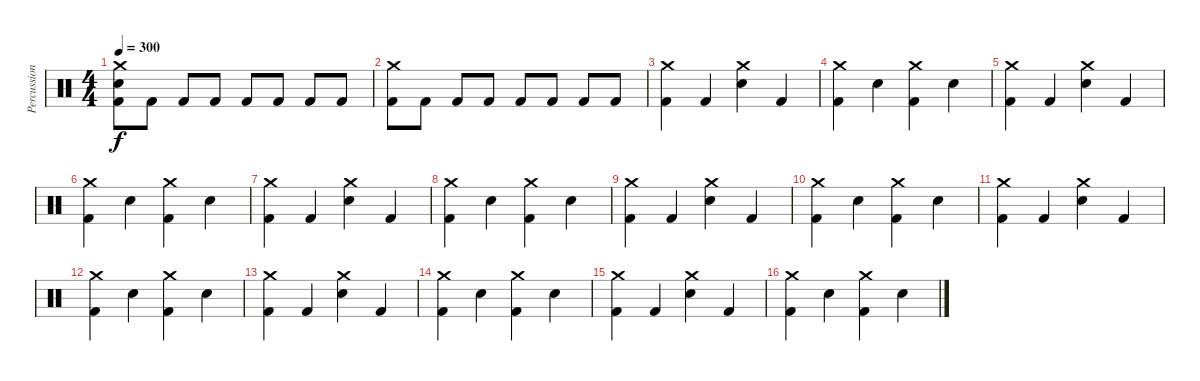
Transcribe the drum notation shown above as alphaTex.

\track ("Percussion" "Percussion") {instrument percussion}
\staff {score}
\articulation defaults
\ts (4 4)
\tempo 300
\clef neutral
\ks c
("Snare (hit) 2" "Kick (hit) 2" "Crash medium (hit)").8{dy f} "Kick (hit) 2".8 "Kick (hit) 2".8 "Kick (hit) 2".8 "Kick (hit) 2".8 "Kick (hit) 2".8 "Kick (hit) 2".8 "Kick (hit) 2".8 |
("Kick (hit) 2" "Crash medium (hit)").8 "Kick (hit) 2".8 "Kick (hit) 2".8 "Kick (hit) 2".8 "Kick (hit) 2".8 "Kick (hit) 2".8 "Kick (hit) 2".8 "Kick (hit) 2".8 |
("Kick (hit) 2" "Crash medium (hit)").4 "Kick (hit) 2".4 ("Snare (hit) 2" "Crash medium (hit)").4 "Kick (hit) 2".4 |
("Kick (hit) 2" "Crash medium (hit)").4 "Snare (hit) 2".4 ("Kick (hit) 2" "Crash medium (hit)").4 "Snare (hit) 2".4 |
("Kick (hit) 2" "Crash medium (hit)").4 "Kick (hit) 2".4 ("Snare (hit) 2" "Crash medium (hit)").4 "Kick (hit) 2".4 |
("Kick (hit) 2" "Crash medium (hit)").4 "Snare (hit) 2".4 ("Kick (hit) 2" "Crash medium (hit)").4 "Snare (hit) 2".4 |
("Kick (hit) 2" "Crash medium (hit)").4 "Kick (hit) 2".4 ("Snare (hit) 2" "Crash medium (hit)").4 "Kick (hit) 2".4 |
("Kick (hit) 2" "Crash medium (hit)").4 "Snare (hit) 2".4 ("Kick (hit) 2" "Crash medium (hit)").4 "Snare (hit) 2".4 |
("Kick (hit) 2" "Crash medium (hit)").4 "Kick (hit) 2".4 ("Snare (hit) 2" "Crash medium (hit)").4 "Kick (hit) 2".4 |
("Kick (hit) 2" "Crash medium (hit)").4 "Snare (hit) 2".4 ("Kick (hit) 2" "Crash medium (hit)").4 "Snare (hit) 2".4 |
("Kick (hit) 2" "Crash medium (hit)").4 "Kick (hit) 2".4 ("Snare (hit) 2" "Crash medium (hit)").4 "Kick (hit) 2".4 |
("Kick (hit) 2" "Crash medium (hit)").4 "Snare (hit) 2".4 ("Kick (hit) 2" "Crash medium (hit)").4 "Snare (hit) 2".4 |
("Kick (hit) 2" "Crash medium (hit)").4 "Kick (hit) 2".4 ("Snare (hit) 2" "Crash medium (hit)").4 "Kick (hit) 2".4 |
("Kick (hit) 2" "Crash medium (hit)").4 "Snare (hit) 2".4 ("Kick (hit) 2" "Crash medium (hit)").4 "Snare (hit) 2".4 |
("Kick (hit) 2" "Crash medium (hit)").4 "Kick (hit) 2".4 ("Snare (hit) 2" "Crash medium (hit)").4 "Kick (hit) 2".4 |
("Kick (hit) 2" "Crash medium (hit)").4 "Snare (hit) 2".4 ("Kick (hit) 2" "Crash medium (hit)").4 "Snare (hit) 2".4
